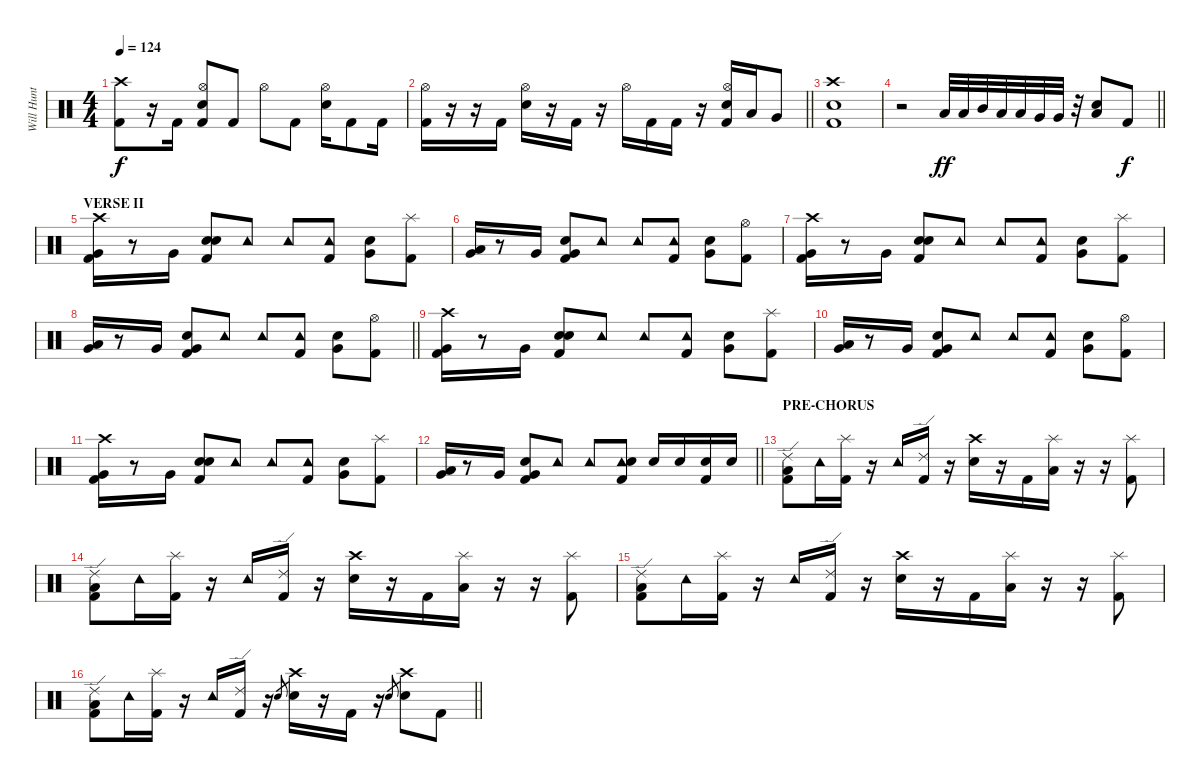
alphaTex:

\track ("Will Hunt - drums" "Will Hunt ") {instrument percussion}
\staff {score}
\articulation defaults
\ts (4 4)
\tempo 124
\clef neutral
\ks c
("Crash high (hit)" "Kick (hit) 2").8{dy f} r.16 "Kick (hit) 2".16 ("Hi-Hat (open)" "Snare (hit) 2" "Kick (hit) 2").8 "Kick (hit) 2".8 "Hi-Hat (open)".8 "Kick (hit) 2".8 ("Hi-Hat (open)" "Snare (hit) 2").16 "Kick (hit) 2".8 "Kick (hit) 2".16 |
\barLineRight lightlight
("Hi-Hat (open)" "Kick (hit) 2").16 r.16 r.16 "Kick (hit) 2".16 ("Hi-Hat (open)" "Snare (hit) 2").16 r.16 "Kick (hit) 2".16 r.16 "Hi-Hat (open)".16 "Kick (hit) 2".16 "Kick (hit) 2".16 r.16 ("Hi-Hat (open)" "Snare (hit) 2" "Kick (hit) 2").16 "Low Tom (hit)".16 "Very Low Tom (hit)".8 |
\section ("" "")
("Crash high (hit)" "Snare (hit) 2" "Kick (hit) 2").1 |
\barLineRight lightlight
r.2 "Low Tom (hit)".32{dy ff} "Low Tom (hit)".32 "Mid Tom (hit)".32 "Low Tom (hit)".32 "Low Tom (hit)".32 "Very Low Tom (hit)".32 "Very Low Tom (hit)".32 r.32 ("Low Floor Tom (hit)" "Snare (hit) 2").8 "Kick (hit) 2".8{dy f} |
\section ("" "VERSE II")
("Crash high (hit)" "Very Low Tom (hit)" "Kick (hit) 2").16 r.8 "Very Low Tom (hit)".16 ("Electric Snare (hit)" "Snare (hit) 2" "Kick (hit) 2").8 "Tambourine (hit)".8 "Tambourine (hit)".8 ("Tambourine (hit)" "Kick (hit) 2").8 ("Very Low Tom (hit)" "Snare (hit) 2").8 ("Splash (hit)" "Kick (hit) 2").8 |
("Low Floor Tom (hit)" "Very Low Tom (hit)").16 r.8 "Very Low Tom (hit)".16 ("Very Low Tom (hit)" "Snare (hit) 2" "Kick (hit) 2").8 "Tambourine (hit)".8 "Tambourine (hit)".8 ("Tambourine (hit)" "Kick (hit) 2").8 ("Very Low Tom (hit)" "Snare (hit) 2").8 ("Hi-Hat (open)" "Kick (hit) 2").8 |
("Crash high (hit)" "Very Low Tom (hit)" "Kick (hit) 2").16 r.8 "Very Low Tom (hit)".16 ("Electric Snare (hit)" "Snare (hit) 2" "Kick (hit) 2").8 "Tambourine (hit)".8 "Tambourine (hit)".8 ("Tambourine (hit)" "Kick (hit) 2").8 ("Very Low Tom (hit)" "Snare (hit) 2").8 ("Splash (hit)" "Kick (hit) 2").8 |
\barLineRight lightlight
("Low Floor Tom (hit)" "Very Low Tom (hit)").16 r.8 "Very Low Tom (hit)".16 ("Very Low Tom (hit)" "Snare (hit) 2" "Kick (hit) 2").8 "Tambourine (hit)".8 "Tambourine (hit)".8 ("Tambourine (hit)" "Kick (hit) 2").8 ("Very Low Tom (hit)" "Snare (hit) 2").8 ("Hi-Hat (open)" "Kick (hit) 2").8 |
("Crash high (hit)" "Very Low Tom (hit)" "Kick (hit) 2").16 r.8 "Very Low Tom (hit)".16 ("Electric Snare (hit)" "Snare (hit) 2" "Kick (hit) 2").8 "Tambourine (hit)".8 "Tambourine (hit)".8 ("Tambourine (hit)" "Kick (hit) 2").8 ("Very Low Tom (hit)" "Snare (hit) 2").8 ("Splash (hit)" "Kick (hit) 2").8 |
("Low Floor Tom (hit)" "Very Low Tom (hit)").16 r.8 "Very Low Tom (hit)".16 ("Very Low Tom (hit)" "Snare (hit) 2" "Kick (hit) 2").8 "Tambourine (hit)".8 "Tambourine (hit)".8 ("Tambourine (hit)" "Kick (hit) 2").8 ("Very Low Tom (hit)" "Snare (hit) 2").8 ("Hi-Hat (open)" "Kick (hit) 2").8 |
("Crash high (hit)" "Very Low Tom (hit)" "Kick (hit) 2").16 r.8 "Very Low Tom (hit)".16 ("Electric Snare (hit)" "Snare (hit) 2" "Kick (hit) 2").8 "Tambourine (hit)".8 "Tambourine (hit)".8 ("Tambourine (hit)" "Kick (hit) 2").8 ("Very Low Tom (hit)" "Snare (hit) 2").8 ("Splash (hit)" "Kick (hit) 2").8 |
\barLineRight lightlight
("Low Floor Tom (hit)" "Very Low Tom (hit)").16 r.8 "Very Low Tom (hit)".16 ("Very Low Tom (hit)" "Snare (hit) 2" "Kick (hit) 2").8 "Tambourine (hit)".8 "Tambourine (hit)".8 ("Tambourine (hit)" "Snare (hit) 2" "Kick (hit) 2").8 "Snare (hit) 2".16 "Snare (hit) 2".16 ("Snare (hit) 2" "Kick (hit) 2").16 "Snare (hit) 2".16 |
\section ("" "PRE-CHORUS")
("Ride (edge) 2" "Low Tom (hit)" "Kick (hit) 2").8 "Tambourine (hit)".16 ("Splash (hit)" "Kick (hit) 2").16 r.16 "Tambourine (hit)".16 ("Ride (edge) 2" "Kick (hit) 2").16 r.16 ("Crash high (hit)" "Snare (hit) 2").16 r.16 "Kick (hit) 2".16 ("Splash (hit)" "Low Tom (hit)").16 r.16 r.16 ("Splash (hit)" "Kick (hit) 2").8 |
("Ride (edge) 2" "Low Tom (hit)" "Kick (hit) 2").8 "Tambourine (hit)".16 ("Splash (hit)" "Kick (hit) 2").16 r.16 "Tambourine (hit)".16 ("Ride (edge) 2" "Kick (hit) 2").16 r.16 ("Crash high (hit)" "Snare (hit) 2").16 r.16 "Kick (hit) 2".16 ("Splash (hit)" "Low Tom (hit)").16 r.16 r.16 ("Splash (hit)" "Kick (hit) 2").8 |
("Ride (edge) 2" "Low Tom (hit)" "Kick (hit) 2").8 "Tambourine (hit)".16 ("Splash (hit)" "Kick (hit) 2").16 r.16 "Tambourine (hit)".16 ("Ride (edge) 2" "Kick (hit) 2").16 r.16 ("Crash high (hit)" "Snare (hit) 2").16 r.16 "Kick (hit) 2".16 ("Splash (hit)" "Low Tom (hit)").16 r.16 r.16 ("Splash (hit)" "Kick (hit) 2").8 |
\barLineRight lightlight
("Ride (edge) 2" "Low Tom (hit)" "Kick (hit) 2").8 "Tambourine (hit)".16 ("Splash (hit)" "Kick (hit) 2").16 r.16 "Tambourine (hit)".16 ("Ride (edge) 2" "Kick (hit) 2").16 r.16 "Snare (hit) 2".8{gr} ("Crash high (hit)" "Snare (hit) 2").16 r.16 "Kick (hit) 2".16 r.16 "Snare (hit) 2".8{gr} ("Crash high (hit)" "Snare (hit) 2").8 "Kick (hit) 2".8
